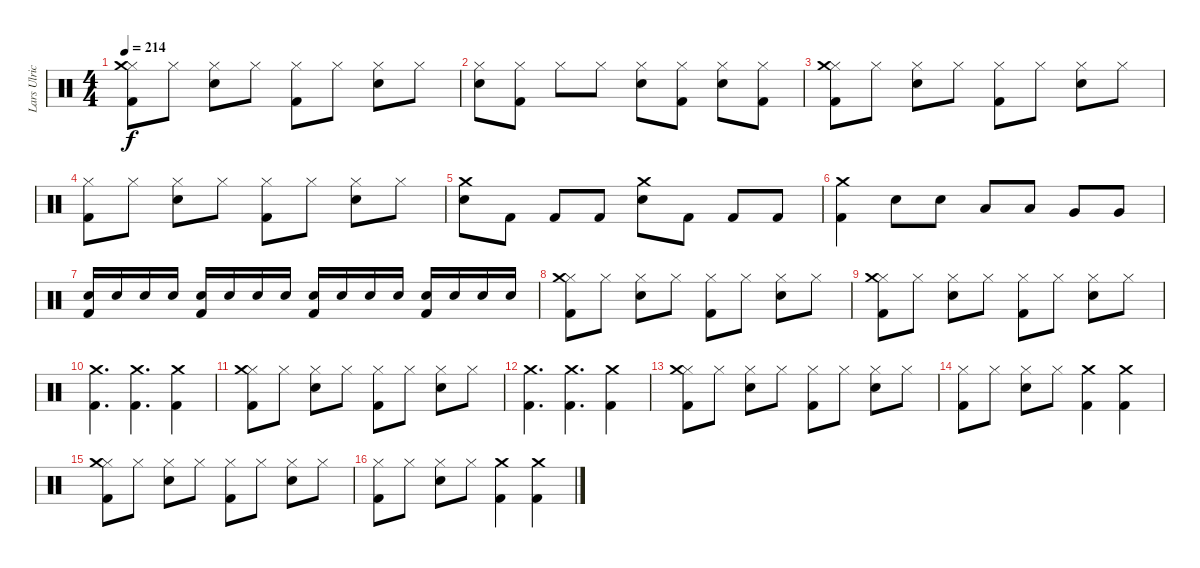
\track ("Lars Ulrich" "Lars Ulric") {instrument percussion}
\staff {score}
\articulation defaults
\ts (4 4)
\tempo 214
\clef neutral
\ks c
("Hi-Hat (closed)" "Kick (hit) 2" "Crash medium (hit)").8{dy f} "Hi-Hat (closed)".8 ("Hi-Hat (closed)" "Snare (hit) 2").8 "Hi-Hat (closed)".8 ("Hi-Hat (closed)" "Kick (hit) 2").8 "Hi-Hat (closed)".8 ("Hi-Hat (closed)" "Snare (hit) 2").8 "Hi-Hat (closed)".8 |
("Hi-Hat (closed)" "Snare (hit) 2").8 ("Hi-Hat (closed)" "Kick (hit) 2").8 "Hi-Hat (closed)".8 "Hi-Hat (closed)".8 ("Hi-Hat (closed)" "Snare (hit) 2").8 ("Hi-Hat (closed)" "Kick (hit) 2").8 ("Hi-Hat (closed)" "Snare (hit) 2").8 ("Hi-Hat (closed)" "Kick (hit) 2").8 |
("Hi-Hat (closed)" "Kick (hit) 2" "Crash medium (hit)").8 "Hi-Hat (closed)".8 ("Hi-Hat (closed)" "Snare (hit) 2").8 "Hi-Hat (closed)".8 ("Hi-Hat (closed)" "Kick (hit) 2").8 "Hi-Hat (closed)".8 ("Hi-Hat (closed)" "Snare (hit) 2").8 "Hi-Hat (closed)".8 |
("Hi-Hat (closed)" "Kick (hit) 2").8 "Hi-Hat (closed)".8 ("Hi-Hat (closed)" "Snare (hit) 2").8 "Hi-Hat (closed)".8 ("Hi-Hat (closed)" "Kick (hit) 2").8 "Hi-Hat (closed)".8 ("Hi-Hat (closed)" "Snare (hit) 2").8 "Hi-Hat (closed)".8 |
("Snare (hit) 2" "Crash medium (hit)").8 "Kick (hit) 2".8 "Kick (hit) 2".8 "Kick (hit) 2".8 ("Snare (hit) 2" "Crash medium (hit)").8 "Kick (hit) 2".8 "Kick (hit) 2".8 "Kick (hit) 2".8 |
("Kick (hit) 2" "Crash medium (hit)").4 "Snare (hit) 2".8 "Snare (hit) 2".8 "Low Tom (hit)".8 "Low Tom (hit)".8 "Very Low Tom (hit)".8 "Very Low Tom (hit)".8 |
("Snare (hit) 2" "Kick (hit) 2").16{volume 7} "Snare (hit) 2".16 "Snare (hit) 2".16 "Snare (hit) 2".16 ("Snare (hit) 2" "Kick (hit) 2").16{volume 9} "Snare (hit) 2".16 "Snare (hit) 2".16 "Snare (hit) 2".16 ("Snare (hit) 2" "Kick (hit) 2").16{volume 11} "Snare (hit) 2".16 "Snare (hit) 2".16 "Snare (hit) 2".16 ("Snare (hit) 2" "Kick (hit) 2").16{volume 13} "Snare (hit) 2".16 "Snare (hit) 2".16 "Snare (hit) 2".16 |
("Hi-Hat (closed)" "Kick (hit) 2" "Crash medium (hit)").8 "Hi-Hat (closed)".8 ("Hi-Hat (closed)" "Snare (hit) 2").8 "Hi-Hat (closed)".8 ("Hi-Hat (closed)" "Kick (hit) 2").8 "Hi-Hat (closed)".8 ("Hi-Hat (closed)" "Snare (hit) 2").8 "Hi-Hat (closed)".8 |
("Hi-Hat (closed)" "Kick (hit) 2" "Crash medium (hit)").8 "Hi-Hat (closed)".8 ("Hi-Hat (closed)" "Snare (hit) 2").8 "Hi-Hat (closed)".8 ("Hi-Hat (closed)" "Kick (hit) 2").8 "Hi-Hat (closed)".8 ("Hi-Hat (closed)" "Snare (hit) 2").8 "Hi-Hat (closed)".8 |
("Kick (hit) 2" "Crash medium (hit)").4{d} ("Crash medium (hit)" "Kick (hit) 2").4{d} ("Kick (hit) 2" "Crash medium (hit)").4 |
("Hi-Hat (closed)" "Kick (hit) 2" "Crash medium (hit)").8 "Hi-Hat (closed)".8 ("Hi-Hat (closed)" "Snare (hit) 2").8 "Hi-Hat (closed)".8 ("Hi-Hat (closed)" "Kick (hit) 2").8 "Hi-Hat (closed)".8 ("Hi-Hat (closed)" "Snare (hit) 2").8 "Hi-Hat (closed)".8 |
("Kick (hit) 2" "Crash medium (hit)").4{d} ("Crash medium (hit)" "Kick (hit) 2").4{d} ("Kick (hit) 2" "Crash medium (hit)").4 |
("Hi-Hat (closed)" "Kick (hit) 2" "Crash medium (hit)").8 "Hi-Hat (closed)".8 ("Hi-Hat (closed)" "Snare (hit) 2").8 "Hi-Hat (closed)".8 ("Hi-Hat (closed)" "Kick (hit) 2").8 "Hi-Hat (closed)".8 ("Hi-Hat (closed)" "Snare (hit) 2").8 "Hi-Hat (closed)".8 |
("Hi-Hat (closed)" "Kick (hit) 2").8 "Hi-Hat (closed)".8 ("Hi-Hat (closed)" "Snare (hit) 2").8 "Hi-Hat (closed)".8 ("Kick (hit) 2" "Crash medium (hit)").4 ("Kick (hit) 2" "Crash medium (hit)").4 |
("Hi-Hat (closed)" "Kick (hit) 2" "Crash medium (hit)").8 "Hi-Hat (closed)".8 ("Hi-Hat (closed)" "Snare (hit) 2").8 "Hi-Hat (closed)".8 ("Hi-Hat (closed)" "Kick (hit) 2").8 "Hi-Hat (closed)".8 ("Hi-Hat (closed)" "Snare (hit) 2").8 "Hi-Hat (closed)".8 |
("Hi-Hat (closed)" "Kick (hit) 2").8 "Hi-Hat (closed)".8 ("Hi-Hat (closed)" "Snare (hit) 2").8 "Hi-Hat (closed)".8 ("Kick (hit) 2" "Crash medium (hit)").4 ("Kick (hit) 2" "Crash medium (hit)").4
